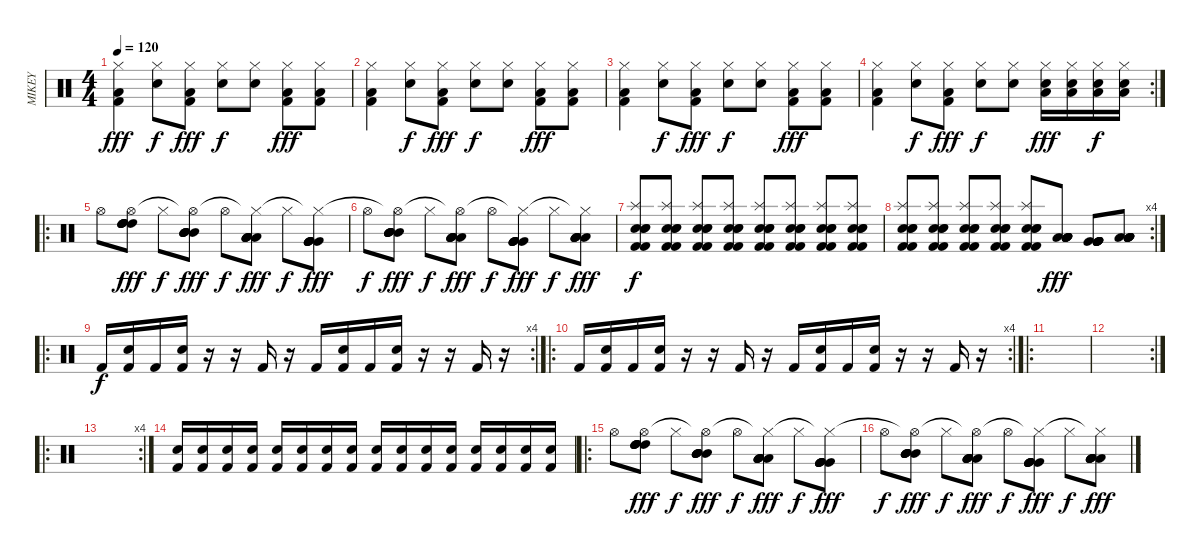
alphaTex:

\track ("MIKEY" "MIKEY") {instrument percussion}
\staff {score}
\articulation defaults
\ts (4 4)
\tempo 120
\clef neutral
\ks c
("Hi-Hat (closed)" "Low Floor Tom (hit)" "Kick (hit) 2").4{dy fff} ("Hi-Hat (closed)" "Electric Snare (hit)").8{dy f} ("Hi-Hat (closed)" "Low Floor Tom (hit)" "Kick (hit) 2").8{dy fff} ("Hi-Hat (closed)" "Electric Snare (hit)").8{dy f} ("Hi-Hat (closed)" "Electric Snare (hit)").8 ("Hi-Hat (closed)" "Low Floor Tom (hit)" "Kick (hit) 2").8{dy fff} ("Hi-Hat (closed)" "Low Floor Tom (hit)" "Kick (hit) 2").8 |
("Hi-Hat (closed)" "Low Floor Tom (hit)" "Kick (hit) 2").4 ("Hi-Hat (closed)" "Electric Snare (hit)").8{dy f} ("Hi-Hat (closed)" "Low Floor Tom (hit)" "Kick (hit) 2").8{dy fff} ("Hi-Hat (closed)" "Electric Snare (hit)").8{dy f} ("Hi-Hat (closed)" "Electric Snare (hit)").8 ("Hi-Hat (closed)" "Low Floor Tom (hit)" "Kick (hit) 2").8{dy fff} ("Hi-Hat (closed)" "Low Floor Tom (hit)" "Kick (hit) 2").8 |
("Hi-Hat (closed)" "Low Floor Tom (hit)" "Kick (hit) 2").4 ("Hi-Hat (closed)" "Electric Snare (hit)").8{dy f} ("Hi-Hat (closed)" "Low Floor Tom (hit)" "Kick (hit) 2").8{dy fff} ("Hi-Hat (closed)" "Electric Snare (hit)").8{dy f} ("Hi-Hat (closed)" "Electric Snare (hit)").8 ("Hi-Hat (closed)" "Low Floor Tom (hit)" "Kick (hit) 2").8{dy fff} ("Hi-Hat (closed)" "Low Floor Tom (hit)" "Kick (hit) 2").8 |
\rc 2
("Hi-Hat (closed)" "Low Floor Tom (hit)" "Kick (hit) 2").4 ("Hi-Hat (closed)" "Electric Snare (hit)").8{dy f} ("Hi-Hat (closed)" "Low Floor Tom (hit)" "Kick (hit) 2").8{dy fff} ("Hi-Hat (closed)" "Electric Snare (hit)").8{dy f} ("Hi-Hat (closed)" "Electric Snare (hit)").8 ("Hi-Hat (closed)" "Low Floor Tom (hit)" "Electric Snare (hit)").16{dy fff} ("Hi-Hat (closed)" "Low Floor Tom (hit)" "Electric Snare (hit)").16 ("Hi-Hat (closed)" "Low Floor Tom (hit)" "Electric Snare (hit)").16{dy f} ("Hi-Hat (closed)" "Low Floor Tom (hit)" "Electric Snare (hit)").16 |
\ro "Hi-Hat (open)".8
("High Tom (hit)" "High Tom (hit)" "High Tom (hit)" "High Tom (hit)" "High Tom (hit)" "Hi-Hat (open)").8{dy fff} "Hi-Hat (closed)".8{dy f} ("Mid Tom (hit)" "Mid Tom (hit)" "Mid Tom (hit)" "Mid Tom (hit)" "Mid Tom (hit)" "Hi-Hat (open)"{t}).8{dy fff} "Hi-Hat (open)".8{dy f} ("Low Tom (hit)" "Low Tom (hit)" "Low Tom (hit)" "Low Tom (hit)" "Low Tom (hit)" "Hi-Hat (closed)"{t}).8{dy fff} "Hi-Hat (closed)".8{dy f} ("Very Low Tom (hit)" "Very Low Tom (hit)" "Very Low Tom (hit)" "Very Low Tom (hit)" "Very Low Tom (hit)" "Hi-Hat (closed)"{t}).8{dy fff} |
"Hi-Hat (open)".8{dy f} ("Mid Tom (hit)" "Mid Tom (hit)" "Mid Tom (hit)" "Mid Tom (hit)" "Mid Tom (hit)" "Hi-Hat (open)"{t}).8{dy fff} "Hi-Hat (closed)".8{dy f} ("Low Tom (hit)" "Low Tom (hit)" "Low Tom (hit)" "Low Tom (hit)" "Low Tom (hit)" "Hi-Hat (open)"{t}).8{dy fff} "Hi-Hat (open)".8{dy f} ("Very Low Tom (hit)" "Very Low Tom (hit)" "Very Low Tom (hit)" "Very Low Tom (hit)" "Very Low Tom (hit)" "Hi-Hat (closed)"{t}).8{dy fff} "Hi-Hat (closed)".8{dy f} ("Low Floor Tom (hit)" "Low Floor Tom (hit)" "Low Floor Tom (hit)" "Low Floor Tom (hit)" "Low Floor Tom (hit)" "Hi-Hat (closed)"{t}).8{dy fff} |
("Splash (hit)" "Kick (hit) 2" "Snare (hit) 2" "Kick (hit) 2" "Snare (hit) 2" "Electric Snare (hit)").8{dy f} ("Splash (hit)" "Kick (hit) 2" "Snare (hit) 2" "Kick (hit) 2" "Snare (hit) 2" "Electric Snare (hit)").8 ("Splash (hit)" "Kick (hit) 2" "Snare (hit) 2" "Kick (hit) 2" "Snare (hit) 2" "Electric Snare (hit)").8 ("Splash (hit)" "Kick (hit) 2" "Snare (hit) 2" "Kick (hit) 2" "Snare (hit) 2" "Electric Snare (hit)").8 ("Splash (hit)" "Kick (hit) 2" "Snare (hit) 2" "Kick (hit) 2" "Snare (hit) 2" "Electric Snare (hit)").8 ("Splash (hit)" "Kick (hit) 2" "Snare (hit) 2" "Kick (hit) 2" "Snare (hit) 2" "Electric Snare (hit)").8 ("Splash (hit)" "Kick (hit) 2" "Snare (hit) 2" "Kick (hit) 2" "Snare (hit) 2" "Electric Snare (hit)").8 ("Splash (hit)" "Kick (hit) 2" "Snare (hit) 2" "Kick (hit) 2" "Snare (hit) 2" "Electric Snare (hit)").8 |
\rc 4
("Splash (hit)" "Kick (hit) 2" "Snare (hit) 2" "Kick (hit) 2" "Snare (hit) 2" "Electric Snare (hit)").8 ("Splash (hit)" "Kick (hit) 2" "Snare (hit) 2" "Kick (hit) 2" "Snare (hit) 2" "Electric Snare (hit)").8 ("Splash (hit)" "Kick (hit) 2" "Snare (hit) 2" "Kick (hit) 2" "Snare (hit) 2" "Electric Snare (hit)").8 ("Splash (hit)" "Kick (hit) 2" "Snare (hit) 2" "Kick (hit) 2" "Snare (hit) 2" "Electric Snare (hit)").8 ("Splash (hit)" "Kick (hit) 2" "Snare (hit) 2" "Kick (hit) 2" "Snare (hit) 2" "Electric Snare (hit)").8 ("Low Tom (hit)" "Low Tom (hit)" "Low Tom (hit)" "Low Tom (hit)" "Low Tom (hit)" "Low Tom (hit)").8{dy fff} ("Very Low Tom (hit)" "Very Low Tom (hit)" "Very Low Tom (hit)" "Very Low Tom (hit)" "Very Low Tom (hit)" "Very Low Tom (hit)").8 ("Low Floor Tom (hit)" "Low Floor Tom (hit)" "Low Floor Tom (hit)" "Low Floor Tom (hit)" "Low Floor Tom (hit)" "Low Floor Tom (hit)").8 |
\ro
\rc 4 "Kick (hit) 2".16{dy f}
("Snare (hit) 2" "Kick (hit) 2").16 "Kick (hit) 2".16 ("Snare (hit) 2" "Kick (hit) 2").16 r.16 r.16 "Kick (hit) 2".16 r.16 "Kick (hit) 2".16 ("Snare (hit) 2" "Kick (hit) 2").16 "Kick (hit) 2".16 ("Snare (hit) 2" "Kick (hit) 2").16 r.16 r.16 "Kick (hit) 2".16 r.16 |
\ro
\rc 4 "Kick (hit) 2".16
("Snare (hit) 2" "Kick (hit) 2").16 "Kick (hit) 2".16 ("Snare (hit) 2" "Kick (hit) 2").16 r.16 r.16 "Kick (hit) 2".16 r.16 "Kick (hit) 2".16 ("Snare (hit) 2" "Kick (hit) 2").16 "Kick (hit) 2".16 ("Snare (hit) 2" "Kick (hit) 2").16 r.16 r.16 "Kick (hit) 2".16 r.16 |
\ro
|
\rc 2
|
\ro
\rc 4
|
("Kick (hit) 2" "Electric Snare (hit)").16 ("Kick (hit) 2" "Electric Snare (hit)").16 ("Kick (hit) 2" "Electric Snare (hit)").16 ("Kick (hit) 2" "Electric Snare (hit)").16 ("Kick (hit) 2" "Electric Snare (hit)").16 ("Kick (hit) 2" "Electric Snare (hit)").16 ("Kick (hit) 2" "Electric Snare (hit)").16 ("Kick (hit) 2" "Electric Snare (hit)").16 ("Kick (hit) 2" "Electric Snare (hit)").16 ("Kick (hit) 2" "Electric Snare (hit)").16 ("Kick (hit) 2" "Electric Snare (hit)").16 ("Kick (hit) 2" "Electric Snare (hit)").16 ("Kick (hit) 2" "Electric Snare (hit)").16 ("Kick (hit) 2" "Electric Snare (hit)").16 ("Kick (hit) 2" "Electric Snare (hit)").16 ("Kick (hit) 2" "Electric Snare (hit)").16 |
\ro "Hi-Hat (open)".8
("High Tom (hit)" "High Tom (hit)" "High Tom (hit)" "High Tom (hit)" "High Tom (hit)" "Hi-Hat (open)").8{dy fff} "Hi-Hat (closed)".8{dy f} ("Mid Tom (hit)" "Mid Tom (hit)" "Mid Tom (hit)" "Mid Tom (hit)" "Mid Tom (hit)" "Hi-Hat (open)"{t}).8{dy fff} "Hi-Hat (open)".8{dy f} ("Low Tom (hit)" "Low Tom (hit)" "Low Tom (hit)" "Low Tom (hit)" "Low Tom (hit)" "Hi-Hat (closed)"{t}).8{dy fff} "Hi-Hat (closed)".8{dy f} ("Very Low Tom (hit)" "Very Low Tom (hit)" "Very Low Tom (hit)" "Very Low Tom (hit)" "Very Low Tom (hit)" "Hi-Hat (closed)"{t}).8{dy fff} |
"Hi-Hat (open)".8{dy f} ("Mid Tom (hit)" "Mid Tom (hit)" "Mid Tom (hit)" "Mid Tom (hit)" "Mid Tom (hit)" "Hi-Hat (open)"{t}).8{dy fff} "Hi-Hat (closed)".8{dy f} ("Low Tom (hit)" "Low Tom (hit)" "Low Tom (hit)" "Low Tom (hit)" "Low Tom (hit)" "Hi-Hat (open)"{t}).8{dy fff} "Hi-Hat (open)".8{dy f} ("Very Low Tom (hit)" "Very Low Tom (hit)" "Very Low Tom (hit)" "Very Low Tom (hit)" "Very Low Tom (hit)" "Hi-Hat (closed)"{t}).8{dy fff} "Hi-Hat (closed)".8{dy f} ("Low Floor Tom (hit)" "Low Floor Tom (hit)" "Low Floor Tom (hit)" "Low Floor Tom (hit)" "Low Floor Tom (hit)" "Hi-Hat (closed)"{t}).8{dy fff}
